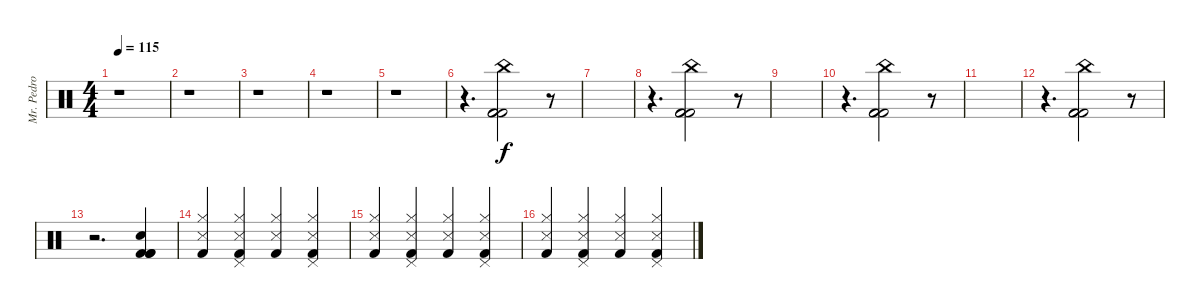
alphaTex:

\track ("Mr. Pedro Andreu" "Mr. Pedro ") {instrument percussion}
\staff {score}
\articulation defaults
\ts (4 4)
\tempo 115
\clef neutral
\ks c
r.1{dy f} |
r.1 |
r.1 |
r.1 |
r.1 |
r.4{d} ("Kick (hit) 2" "China (hit)" "Kick (hit) 2" "Kick (hit) 2").2 r.8 |
|
r.4{d} ("Kick (hit) 2" "China (hit)" "Kick (hit) 2" "Kick (hit) 2").2 r.8 |
|
r.4{d} ("Kick (hit) 2" "China (hit)" "Kick (hit) 2" "Kick (hit) 2").2 r.8 |
|
r.4{d} ("Kick (hit) 2" "China (hit)" "Kick (hit) 2" "Kick (hit) 2").2 r.8 |
r.2{d} ("Snare (hit) 2" "Kick (hit) 2" "Kick (hit) 2" "Kick (hit) 2").4 |
("Hi-Hat (closed)" "Snare (side stick) 3" "Kick (hit) 2").4 ("Hi-Hat (closed)" "Pedal Hi-Hat (hit)" "Snare (side stick) 3" "Kick (hit) 2").4 ("Hi-Hat (closed)" "Snare (side stick) 3" "Kick (hit) 2").4 ("Hi-Hat (closed)" "Pedal Hi-Hat (hit)" "Snare (side stick) 3" "Kick (hit) 2").4 |
("Hi-Hat (closed)" "Snare (side stick) 3" "Kick (hit) 2").4 ("Hi-Hat (closed)" "Pedal Hi-Hat (hit)" "Snare (side stick) 3" "Kick (hit) 2").4 ("Hi-Hat (closed)" "Snare (side stick) 3" "Kick (hit) 2").4 ("Hi-Hat (closed)" "Pedal Hi-Hat (hit)" "Snare (side stick) 3" "Kick (hit) 2").4 |
("Hi-Hat (closed)" "Snare (side stick) 3" "Kick (hit) 2").4 ("Hi-Hat (closed)" "Pedal Hi-Hat (hit)" "Snare (side stick) 3" "Kick (hit) 2").4 ("Hi-Hat (closed)" "Snare (side stick) 3" "Kick (hit) 2").4 ("Hi-Hat (closed)" "Pedal Hi-Hat (hit)" "Snare (side stick) 3" "Kick (hit) 2").4
